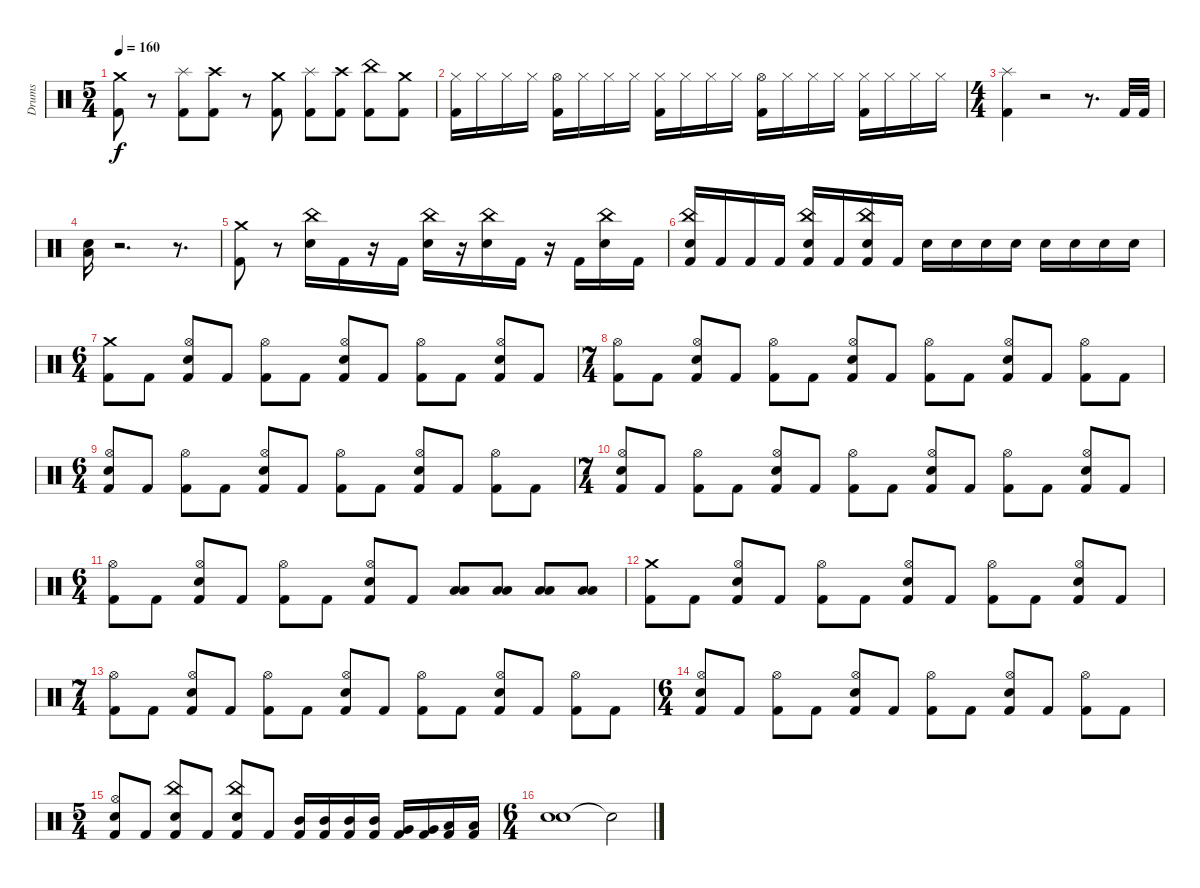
\track ("Drums" "Drums") {instrument percussion}
\staff {score}
\articulation defaults
\ts (5 4)
\tempo 160
\clef neutral
\ks c
("Crash medium (hit)" "Kick (hit) 2").8{dy f} r.8 ("Splash (hit)" "Kick (hit) 2").8 ("Crash high (hit)" "Kick (hit) 2").8 r.8 ("Crash medium (hit)" "Kick (hit) 2").8 ("Splash (hit)" "Kick (hit) 2").8 ("Crash high (hit)" "Kick (hit) 2").8 ("China (hit)" "Kick (hit) 2").8 ("Crash medium (hit)" "Kick (hit) 2").8 |
("Kick (hit) 2" "Hi-Hat (closed)").16 "Hi-Hat (closed)".16 "Hi-Hat (closed)".16 "Hi-Hat (closed)".16 ("Hi-Hat (open)" "Kick (hit) 2").16 "Hi-Hat (closed)".16 "Hi-Hat (closed)".16 "Hi-Hat (closed)".16 ("Kick (hit) 2" "Hi-Hat (closed)").16 "Hi-Hat (closed)".16 "Hi-Hat (closed)".16 "Hi-Hat (closed)".16 ("Hi-Hat (open)" "Kick (hit) 2").16 "Hi-Hat (closed)".16 "Hi-Hat (closed)".16 "Hi-Hat (closed)".16 ("Kick (hit) 2" "Hi-Hat (closed)").16 "Hi-Hat (closed)".16 "Hi-Hat (closed)".16 "Hi-Hat (closed)".16 |
\ts (4 4)
("Splash (hit)" "Kick (hit) 2").4 r.2 r.8{d} "Kick (hit) 2".32 "Kick (hit) 2".32 |
("Low Tom (hit)" "Electric Snare (hit)").16 r.2{d} r.8{d} |
("Crash medium (hit)" "Kick (hit) 2").8 r.8 ("China (hit)" "Electric Snare (hit)").16 "Kick (hit) 2".16 r.16 "Kick (hit) 2".16 ("China (hit)" "Electric Snare (hit)").16 r.16 ("China (hit)" "Electric Snare (hit)").16 "Kick (hit) 2".16 r.16 "Kick (hit) 2".16 ("China (hit)" "Electric Snare (hit)").16 "Kick (hit) 2".16 |
("Kick (hit) 2" "China (hit)" "Electric Snare (hit)").16 "Kick (hit) 2".16 "Kick (hit) 2".16 "Kick (hit) 2".16 ("Kick (hit) 2" "China (hit)" "Electric Snare (hit)").16 "Kick (hit) 2".16 ("Kick (hit) 2" "China (hit)" "Electric Snare (hit)").16 "Kick (hit) 2".16 "Electric Snare (hit)".16 "Electric Snare (hit)".16 "Electric Snare (hit)".16 "Electric Snare (hit)".16 "Electric Snare (hit)".16 "Electric Snare (hit)".16 "Electric Snare (hit)".16 "Electric Snare (hit)".16 |
\ts (6 4)
("Crash medium (hit)" "Kick (hit) 2").8 "Kick (hit) 2".8 ("Hi-Hat (open)" "Electric Snare (hit)" "Kick (hit) 2").8 "Kick (hit) 2".8 ("Hi-Hat (open)" "Kick (hit) 2").8 "Kick (hit) 2".8 ("Hi-Hat (open)" "Electric Snare (hit)" "Kick (hit) 2").8 "Kick (hit) 2".8 ("Hi-Hat (open)" "Kick (hit) 2").8 "Kick (hit) 2".8 ("Hi-Hat (open)" "Electric Snare (hit)" "Kick (hit) 2").8 "Kick (hit) 2".8 |
\ts (7 4)
("Hi-Hat (open)" "Kick (hit) 2").8 "Kick (hit) 2".8 ("Hi-Hat (open)" "Electric Snare (hit)" "Kick (hit) 2").8 "Kick (hit) 2".8 ("Hi-Hat (open)" "Kick (hit) 2").8 "Kick (hit) 2".8 ("Hi-Hat (open)" "Electric Snare (hit)" "Kick (hit) 2").8 "Kick (hit) 2".8 ("Hi-Hat (open)" "Kick (hit) 2").8 "Kick (hit) 2".8 ("Hi-Hat (open)" "Electric Snare (hit)" "Kick (hit) 2").8 "Kick (hit) 2".8 ("Hi-Hat (open)" "Kick (hit) 2").8 "Kick (hit) 2".8 |
\ts (6 4)
("Hi-Hat (open)" "Electric Snare (hit)" "Kick (hit) 2").8 "Kick (hit) 2".8 ("Hi-Hat (open)" "Kick (hit) 2").8 "Kick (hit) 2".8 ("Hi-Hat (open)" "Electric Snare (hit)" "Kick (hit) 2").8 "Kick (hit) 2".8 ("Hi-Hat (open)" "Kick (hit) 2").8 "Kick (hit) 2".8 ("Electric Snare (hit)" "Hi-Hat (open)" "Kick (hit) 2").8 "Kick (hit) 2".8 ("Hi-Hat (open)" "Kick (hit) 2").8 "Kick (hit) 2".8 |
\ts (7 4)
("Electric Snare (hit)" "Hi-Hat (open)" "Kick (hit) 2").8 "Kick (hit) 2".8 ("Hi-Hat (open)" "Kick (hit) 2").8 "Kick (hit) 2".8 ("Electric Snare (hit)" "Hi-Hat (open)" "Kick (hit) 2").8 "Kick (hit) 2".8 ("Hi-Hat (open)" "Kick (hit) 2").8 "Kick (hit) 2".8 ("Electric Snare (hit)" "Hi-Hat (open)" "Kick (hit) 2").8 "Kick (hit) 2".8 ("Hi-Hat (open)" "Kick (hit) 2").8 "Kick (hit) 2".8 ("Electric Snare (hit)" "Hi-Hat (open)" "Kick (hit) 2").8 "Kick (hit) 2".8 |
\ts (6 4)
("Hi-Hat (open)" "Kick (hit) 2").8 "Kick (hit) 2".8 ("Electric Snare (hit)" "Hi-Hat (open)" "Kick (hit) 2").8 "Kick (hit) 2".8 ("Hi-Hat (open)" "Kick (hit) 2").8 "Kick (hit) 2".8 ("Electric Snare (hit)" "Hi-Hat (open)" "Kick (hit) 2").8 "Kick (hit) 2".8 ("Low Tom (hit)" "Low Floor Tom (hit)").8 ("Low Tom (hit)" "Low Floor Tom (hit)").8 ("Low Tom (hit)" "Low Floor Tom (hit)").8 ("Low Tom (hit)" "Low Floor Tom (hit)").8 |
("Crash medium (hit)" "Kick (hit) 2").8 "Kick (hit) 2".8 ("Hi-Hat (open)" "Electric Snare (hit)" "Kick (hit) 2").8 "Kick (hit) 2".8 ("Hi-Hat (open)" "Kick (hit) 2").8 "Kick (hit) 2".8 ("Hi-Hat (open)" "Electric Snare (hit)" "Kick (hit) 2").8 "Kick (hit) 2".8 ("Hi-Hat (open)" "Kick (hit) 2").8 "Kick (hit) 2".8 ("Hi-Hat (open)" "Electric Snare (hit)" "Kick (hit) 2").8 "Kick (hit) 2".8 |
\ts (7 4)
("Hi-Hat (open)" "Kick (hit) 2").8 "Kick (hit) 2".8 ("Hi-Hat (open)" "Electric Snare (hit)" "Kick (hit) 2").8 "Kick (hit) 2".8 ("Hi-Hat (open)" "Kick (hit) 2").8 "Kick (hit) 2".8 ("Hi-Hat (open)" "Electric Snare (hit)" "Kick (hit) 2").8 "Kick (hit) 2".8 ("Hi-Hat (open)" "Kick (hit) 2").8 "Kick (hit) 2".8 ("Hi-Hat (open)" "Electric Snare (hit)" "Kick (hit) 2").8 "Kick (hit) 2".8 ("Hi-Hat (open)" "Kick (hit) 2").8 "Kick (hit) 2".8 |
\ts (6 4)
("Hi-Hat (open)" "Electric Snare (hit)" "Kick (hit) 2").8 "Kick (hit) 2".8 ("Hi-Hat (open)" "Kick (hit) 2").8 "Kick (hit) 2".8 ("Hi-Hat (open)" "Electric Snare (hit)" "Kick (hit) 2").8 "Kick (hit) 2".8 ("Hi-Hat (open)" "Kick (hit) 2").8 "Kick (hit) 2".8 ("Hi-Hat (open)" "Electric Snare (hit)" "Kick (hit) 2").8 "Kick (hit) 2".8 ("Hi-Hat (open)" "Kick (hit) 2").8 "Kick (hit) 2".8 |
\ts (5 4)
("Hi-Hat (open)" "Electric Snare (hit)" "Kick (hit) 2").8 "Kick (hit) 2".8 ("China (hit)" "Electric Snare (hit)" "Kick (hit) 2").8 "Kick (hit) 2".8 ("China (hit)" "Electric Snare (hit)" "Kick (hit) 2").8 "Kick (hit) 2".8 ("Kick (hit) 2" "Mid Tom (hit)").16 ("Kick (hit) 2" "Mid Tom (hit)").16 ("Kick (hit) 2" "Mid Tom (hit)").16 ("Kick (hit) 2" "Mid Tom (hit)").16 ("Kick (hit) 2" "Very Low Tom (hit)").16 ("Kick (hit) 2" "Very Low Tom (hit)").16 ("Kick (hit) 2" "Low Floor Tom (hit)").16 ("Kick (hit) 2" "Low Floor Tom (hit)").16 |
\ts (6 4)
("Electric Snare (hit)" "Electric Snare (hit)").1 "Snare (hit)"{t}.2
